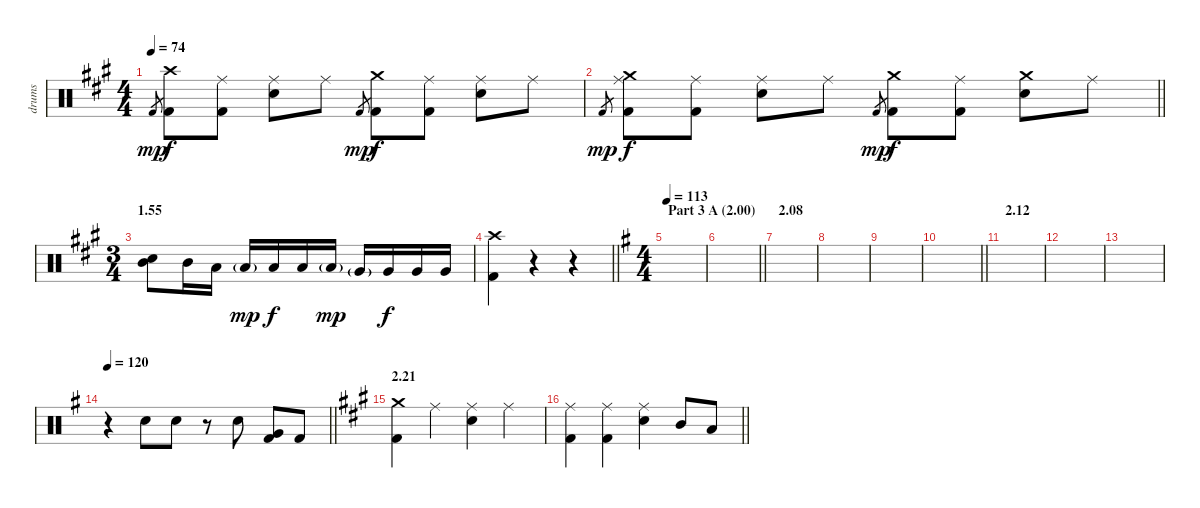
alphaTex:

\track ("drums" "drums") {instrument percussion}
\staff {score}
\articulation defaults
\ts (4 4)
\tempo 74
\clef neutral
\ks a "Kick (hit) 2".8{gr dy mp}
("Crash high (hit)" "Kick (hit) 2").8{dy f} ("Ride (middle)" "Kick (hit) 2").8 ("Ride (middle)" "Electric Snare (hit)").8 "Ride (middle)".8 "Kick (hit) 2".8{gr dy mp} ("Crash medium (hit)" "Kick (hit) 2").8{dy f} ("Ride (middle)" "Kick (hit) 2").8 ("Ride (middle)" "Electric Snare (hit)").8 "Ride (middle)".8 |
\barLineRight lightlight "Kick (hit) 2".8{gr dy mp}
("Ride (middle)" "Crash medium (hit)" "Kick (hit) 2").8{dy f} ("Ride (middle)" "Kick (hit) 2").8 ("Ride (middle)" "Electric Snare (hit)").8 "Ride (middle)".8 "Kick (hit) 2".8{gr dy mp} ("Crash medium (hit)" "Kick (hit) 2").8{dy f} ("Ride (middle)" "Kick (hit) 2").8 ("Crash medium (hit)" "Electric Snare (hit)").8 "Ride (middle)".8 |
\ts (3 4)
\section ("" "1.55")
("Mid Tom (hit)" "Electric Snare (hit)").8 "Mid Tom (hit)".16 "Low Tom (hit)".16 "Low Tom (hit)"{g}.16{dy mp} "Low Tom (hit)".16{dy f} "Low Tom (hit)".16 "Low Tom (hit)"{g}.16{dy mp} "Very Low Tom (hit)"{g}.16 "Very Low Tom (hit)".16{dy f} "Very Low Tom (hit)".16 "Very Low Tom (hit)".16 |
\barLineRight lightlight
("Crash high (hit)" "Kick (hit) 2").4 r.4 r.4 |
\ts (4 4)
\section ("" "Part 3 A (2.00)")
\tempo 113
\ks g
|
\barLineRight lightlight
|
\section ("" "2.08")
|
|
|
\barLineRight lightlight
|
\section ("" "2.12")
|
|
|
\tempo 120
\barLineRight lightlight
r.4 "Electric Snare (hit)".8 "Electric Snare (hit)".8 r.8 "Electric Snare (hit)".8 ("Very Low Tom (hit)" "Kick (hit) 2").8 "Kick (hit) 2".8 |
\section ("" "2.21")
\ks a
("Crash medium (hit)" "Kick (hit) 2").4 "Ride (middle)".4 ("Ride (middle)" "Electric Snare (hit)").4 "Ride (middle)".4 |
\barLineRight lightlight
("Ride (middle)" "Kick (hit) 2").4 ("Ride (middle)" "Kick (hit) 2").4 ("Ride (middle)" "Electric Snare (hit)").4 "Mid Tom (hit)".8 "Low Tom (hit)".8
